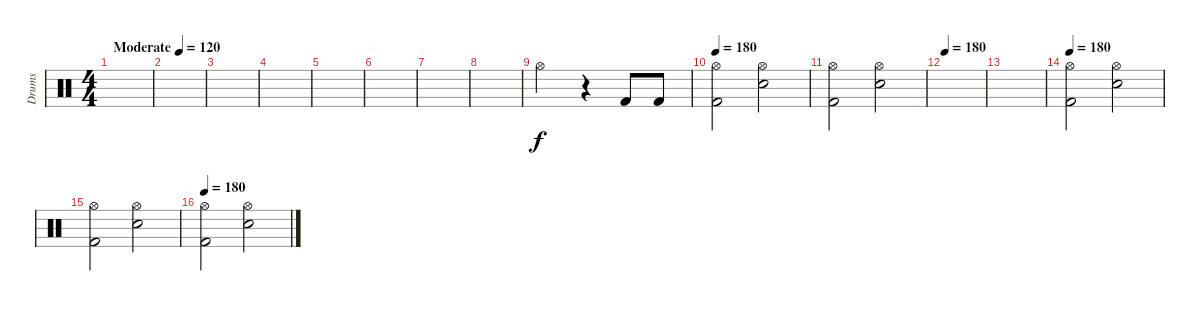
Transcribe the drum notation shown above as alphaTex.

\track ("Drums" "Drums") {instrument percussion}
\staff {score}
\articulation defaults
\ts (4 4)
\tempo (120 "Moderate")
\clef neutral
\ks c
|
|
|
|
|
|
|
|
"Hi-Hat (open)".2 r.4 "Kick (hit) 2".8 "Kick (hit) 2".8 |
\tempo 180
("Hi-Hat (open)" "Kick (hit) 2").2 ("Hi-Hat (open)" "Electric Snare (hit)").2 |
("Hi-Hat (open)" "Kick (hit) 2").2 ("Hi-Hat (open)" "Electric Snare (hit)").2 |
\tempo 180
|
|
\tempo 180
("Hi-Hat (open)" "Kick (hit) 2").2 ("Hi-Hat (open)" "Electric Snare (hit)").2 |
("Hi-Hat (open)" "Kick (hit) 2").2 ("Hi-Hat (open)" "Electric Snare (hit)").2 |
\tempo 180
("Hi-Hat (open)" "Kick (hit) 2").2 ("Hi-Hat (open)" "Electric Snare (hit)").2
